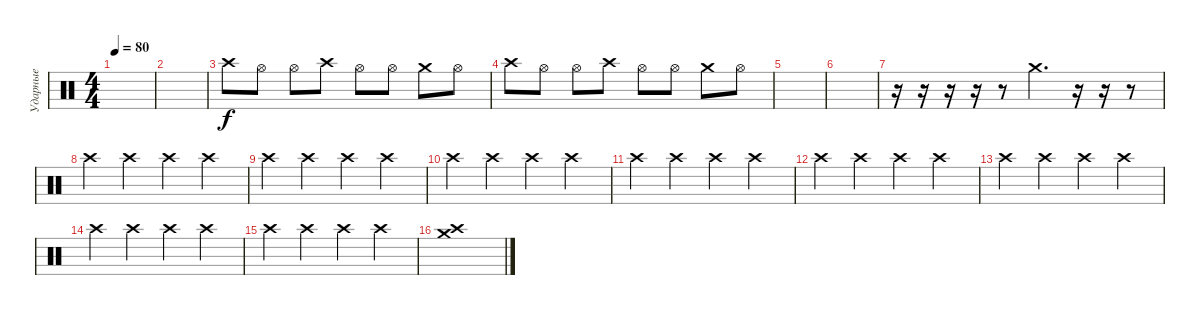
\track ("Ударные" "Ударные") {instrument percussion}
\staff {score}
\articulation defaults
\ts (4 4)
\tempo 80
\clef neutral
\ks c
|
|
"Crash high (hit)".8 "Hi-Hat (open)".8 "Hi-Hat (open)".8 "Crash high (hit)".8 "Hi-Hat (open)".8 "Hi-Hat (open)".8 "Crash medium (hit)".8 "Hi-Hat (open)".8 |
"Crash high (hit)".8 "Hi-Hat (open)".8 "Hi-Hat (open)".8 "Crash high (hit)".8 "Hi-Hat (open)".8 "Hi-Hat (open)".8 "Crash medium (hit)".8 "Hi-Hat (open)".8 |
|
|
r.16 r.16 r.16 r.16 r.8 "Crash medium (hit)".4{d} r.16 r.16 r.8 |
"Crash high (hit)".4 "Crash high (hit)".4 "Crash high (hit)".4 "Crash high (hit)".4 |
"Crash high (hit)".4 "Crash high (hit)".4 "Crash high (hit)".4 "Crash high (hit)".4 |
"Crash high (hit)".4 "Crash high (hit)".4 "Crash high (hit)".4 "Crash high (hit)".4 |
"Crash high (hit)".4 "Crash high (hit)".4 "Crash high (hit)".4 "Crash high (hit)".4 |
"Crash high (hit)".4 "Crash high (hit)".4 "Crash high (hit)".4 "Crash high (hit)".4 |
"Crash high (hit)".4 "Crash high (hit)".4 "Crash high (hit)".4 "Crash high (hit)".4 |
"Crash high (hit)".4 "Crash high (hit)".4 "Crash high (hit)".4 "Crash high (hit)".4 |
"Crash high (hit)".4 "Crash high (hit)".4 "Crash high (hit)".4 "Crash high (hit)".4 |
("Crash high (hit)" "Crash medium (hit)").1
